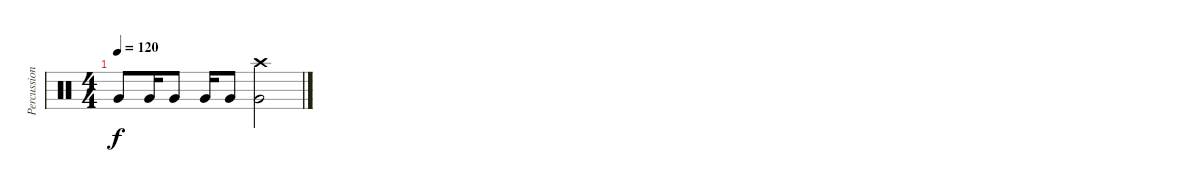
\track ("Percussion" "Percussion") {instrument percussion}
\staff {score}
\articulation defaults
\ts (4 4)
\tempo 120
\clef neutral
\ks c "Very Low Tom (hit)".8{dy f} "Very Low Tom (hit)".16 "Very Low Tom (hit)".8 "Very Low Tom (hit)".16 "Very Low Tom (hit)".8
("Crash high (hit)" "Very Low Tom (hit)").2
